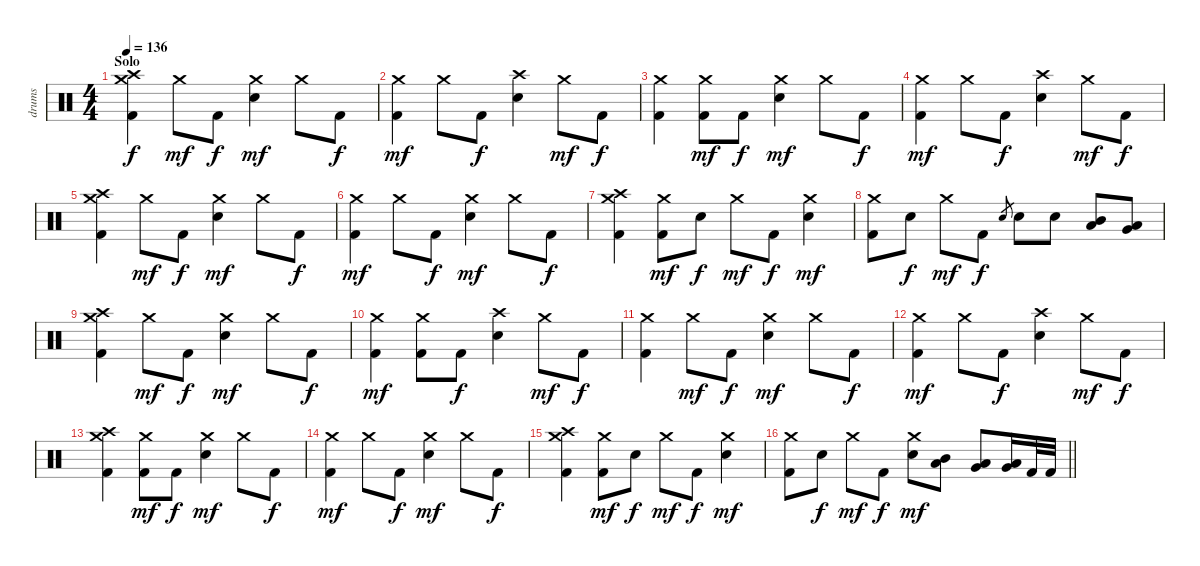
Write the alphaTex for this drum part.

\track ("drums" "drums") {instrument percussion}
\staff {score}
\articulation defaults
\ts (4 4)
\section ("" "Solo")
\tempo 136
\clef neutral
\ks c
("Crash high (hit)" "Crash medium (hit)" "Kick (hit) 2").4{dy f} "Crash medium (hit)".8{dy mf} "Kick (hit) 2".8{dy f} ("Crash medium (hit)" "Electric Snare (hit)").4{dy mf} "Crash medium (hit)".8 "Kick (hit) 2".8{dy f} |
("Crash medium (hit)" "Kick (hit) 2").4{dy mf} "Crash medium (hit)".8 "Kick (hit) 2".8{dy f} ("Crash high (hit)" "Electric Snare (hit)").4 "Crash medium (hit)".8{dy mf} "Kick (hit) 2".8{dy f} |
("Crash medium (hit)" "Kick (hit) 2").4 ("Crash medium (hit)" "Kick (hit) 2").8{dy mf} "Kick (hit) 2".8{dy f} ("Crash medium (hit)" "Electric Snare (hit)").4{dy mf} "Crash medium (hit)".8 "Kick (hit) 2".8{dy f} |
("Crash medium (hit)" "Kick (hit) 2").4{dy mf} "Crash medium (hit)".8 "Kick (hit) 2".8{dy f} ("Crash high (hit)" "Electric Snare (hit)").4 "Crash medium (hit)".8{dy mf} "Kick (hit) 2".8{dy f} |
("Crash high (hit)" "Crash medium (hit)" "Kick (hit) 2").4 "Crash medium (hit)".8{dy mf} "Kick (hit) 2".8{dy f} ("Crash medium (hit)" "Electric Snare (hit)").4{dy mf} "Crash medium (hit)".8 "Kick (hit) 2".8{dy f} |
("Crash medium (hit)" "Kick (hit) 2").4{dy mf} "Crash medium (hit)".8 "Kick (hit) 2".8{dy f} ("Crash medium (hit)" "Electric Snare (hit)").4{dy mf} "Crash medium (hit)".8 "Kick (hit) 2".8{dy f} |
("Crash medium (hit)" "Crash high (hit)" "Kick (hit) 2").4 ("Crash medium (hit)" "Kick (hit) 2").8{dy mf} "Electric Snare (hit)".8{dy f} "Crash medium (hit)".8{dy mf} "Kick (hit) 2".8{dy f} ("Crash medium (hit)" "Electric Snare (hit)").4{dy mf} |
("Crash medium (hit)" "Kick (hit) 2").8 "Electric Snare (hit)".8{dy f} "Crash medium (hit)".8{dy mf} "Kick (hit) 2".8{dy f} "Electric Snare (hit)".8{gr} "Electric Snare (hit)".8 "Electric Snare (hit)".8 ("Mid Tom (hit)" "Low Tom (hit)").8 ("Low Tom (hit)" "Very Low Tom (hit)").8 |
("Crash high (hit)" "Crash medium (hit)" "Kick (hit) 2").4 "Crash medium (hit)".8{dy mf} "Kick (hit) 2".8{dy f} ("Crash medium (hit)" "Electric Snare (hit)").4{dy mf} "Crash medium (hit)".8 "Kick (hit) 2".8{dy f} |
("Crash medium (hit)" "Kick (hit) 2").4{dy mf} ("Crash medium (hit)" "Kick (hit) 2").8 "Kick (hit) 2".8{dy f} ("Crash high (hit)" "Electric Snare (hit)").4 "Crash medium (hit)".8{dy mf} "Kick (hit) 2".8{dy f} |
("Crash medium (hit)" "Kick (hit) 2").4 "Crash medium (hit)".8{dy mf} "Kick (hit) 2".8{dy f} ("Crash medium (hit)" "Electric Snare (hit)").4{dy mf} "Crash medium (hit)".8 "Kick (hit) 2".8{dy f} |
("Crash medium (hit)" "Kick (hit) 2").4{dy mf} "Crash medium (hit)".8 "Kick (hit) 2".8{dy f} ("Crash high (hit)" "Electric Snare (hit)").4 "Crash medium (hit)".8{dy mf} "Kick (hit) 2".8{dy f} |
("Crash high (hit)" "Crash medium (hit)" "Kick (hit) 2").4 ("Crash medium (hit)" "Kick (hit) 2").8{dy mf} "Kick (hit) 2".8{dy f} ("Crash medium (hit)" "Electric Snare (hit)").4{dy mf} "Crash medium (hit)".8 "Kick (hit) 2".8{dy f} |
("Crash medium (hit)" "Kick (hit) 2").4{dy mf} "Crash medium (hit)".8 "Kick (hit) 2".8{dy f} ("Crash medium (hit)" "Electric Snare (hit)").4{dy mf} "Crash medium (hit)".8 "Kick (hit) 2".8{dy f} |
("Crash medium (hit)" "Crash high (hit)" "Kick (hit) 2").4 ("Crash medium (hit)" "Kick (hit) 2").8{dy mf} "Electric Snare (hit)".8{dy f} "Crash medium (hit)".8{dy mf} "Kick (hit) 2".8{dy f} ("Crash medium (hit)" "Electric Snare (hit)").4{dy mf} |
\barLineRight lightlight
("Crash medium (hit)" "Kick (hit) 2").8 "Electric Snare (hit)".8{dy f} "Crash medium (hit)".8{dy mf} "Kick (hit) 2".8{dy f} ("Crash medium (hit)" "Electric Snare (hit)").8{dy mf} ("Mid Tom (hit)" "Low Tom (hit)").8 ("Low Tom (hit)" "Very Low Tom (hit)").8 ("Low Tom (hit)" "Very Low Tom (hit)").16 "Kick (hit) 2".32 "Kick (hit) 2".32
